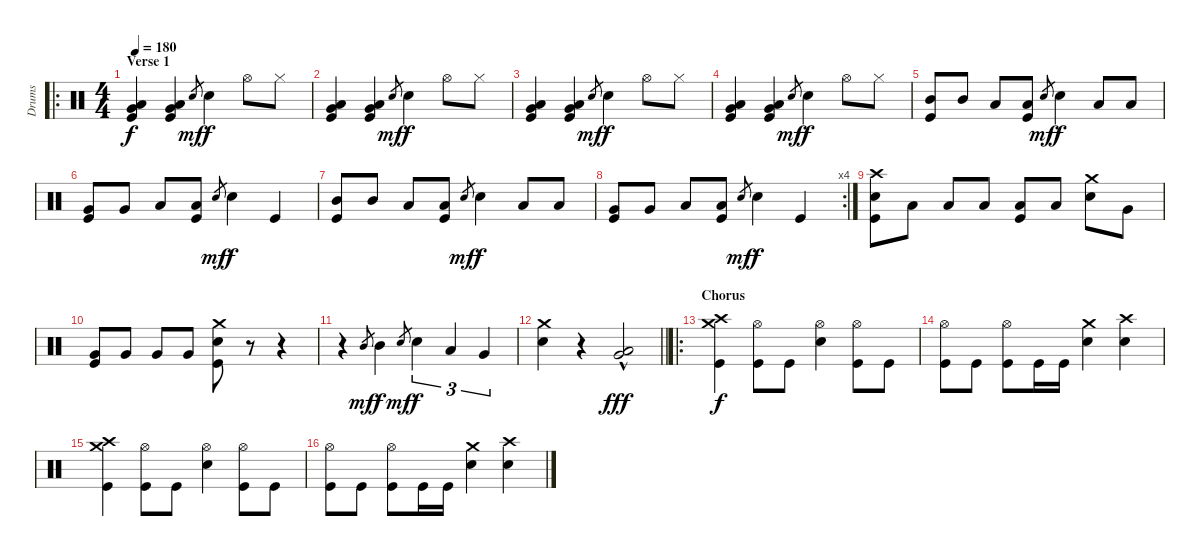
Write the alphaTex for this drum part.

\track ("Drums" "Drums") {instrument percussion}
\staff {score}
\articulation defaults
\ro
\ts (4 4)
\section ("" "Verse 1")
\tempo 180
\clef neutral
\ks c
("Very Low Tom (hit)" "Low Floor Tom (hit)" "Kick (hit)").4{dy f} ("Very Low Tom (hit)" "Low Floor Tom (hit)" "Kick (hit)").4 "Electric Snare (hit)"{h}.8{gr dy mf} "Electric Snare (hit)".4{dy f} "Hi-Hat (open)".8 "Hi-Hat (closed)".8 |
("Very Low Tom (hit)" "Low Floor Tom (hit)" "Kick (hit)").4 ("Very Low Tom (hit)" "Low Floor Tom (hit)" "Kick (hit)").4 "Electric Snare (hit)"{h}.8{gr dy mf} "Electric Snare (hit)".4{dy f} "Hi-Hat (open)".8 "Hi-Hat (closed)".8 |
("Very Low Tom (hit)" "Low Floor Tom (hit)" "Kick (hit)").4 ("Very Low Tom (hit)" "Low Floor Tom (hit)" "Kick (hit)").4 "Electric Snare (hit)"{h}.8{gr dy mf} "Electric Snare (hit)".4{dy f} "Hi-Hat (open)".8 "Hi-Hat (closed)".8 |
("Very Low Tom (hit)" "Low Floor Tom (hit)" "Kick (hit)").4 ("Very Low Tom (hit)" "Low Floor Tom (hit)" "Kick (hit)").4 "Electric Snare (hit)"{h}.8{gr dy mf} "Electric Snare (hit)".4{dy f} "Hi-Hat (open)".8 "Hi-Hat (closed)".8 |
("Mid Tom (hit)" "Kick (hit)").8 "Mid Tom (hit)".8 "Low Tom (hit)".8 ("Low Tom (hit)" "Kick (hit)").8 "Electric Snare (hit)"{h}.8{gr dy mf} "Electric Snare (hit)".4{dy f} "Low Tom (hit)".8 "Low Tom (hit)".8 |
("Very Low Tom (hit)" "Kick (hit)").8 "Very Low Tom (hit)".8 "Low Floor Tom (hit)".8 ("Low Floor Tom (hit)" "Kick (hit)").8 "Electric Snare (hit)"{h}.8{gr dy mf} "Electric Snare (hit)".4{dy f} "Kick (hit)".4 |
("Mid Tom (hit)" "Kick (hit)").8 "Mid Tom (hit)".8 "Low Tom (hit)".8 ("Low Tom (hit)" "Kick (hit)").8 "Electric Snare (hit)"{h}.8{gr dy mf} "Electric Snare (hit)".4{dy f} "Low Tom (hit)".8 "Low Tom (hit)".8 |
\rc 4
("Very Low Tom (hit)" "Kick (hit)").8 "Very Low Tom (hit)".8 "Low Floor Tom (hit)".8 ("Low Floor Tom (hit)" "Kick (hit)").8 "Electric Snare (hit)"{h}.8{gr dy mf} "Electric Snare (hit)".4{dy f} "Kick (hit)".4 |
("Crash high (hit)" "Electric Snare (hit)" "Kick (hit)").8 "Low Tom (hit)".8 "Low Tom (hit)".8 "Low Tom (hit)".8 ("Low Tom (hit)" "Kick (hit)").8 "Low Tom (hit)".8 ("Crash medium (hit)" "Electric Snare (hit)").8 "Very Low Tom (hit)".8 |
("Very Low Tom (hit)" "Kick (hit)").8 "Very Low Tom (hit)".8 "Very Low Tom (hit)".8 "Very Low Tom (hit)".8 ("Crash medium (hit)" "Electric Snare (hit)" "Kick (hit)").8 r.8 r.4 |
r.4 "Mid Tom (hit)"{h}.8{gr dy mf} "Mid Tom (hit)".4{dy f} "Electric Snare (hit)"{h}.8{gr dy mf} "Electric Snare (hit)".4{tu (3 2) dy f} "Low Tom (hit)".4{tu (3 2)} "Very Low Tom (hit)".4{tu (3 2)} |
\barLineRight lightlight
("Crash medium (hit)" "Electric Snare (hit)").4 r.4 ("Very Low Tom (hit)"{hac} "Low Floor Tom (hit)"{hac}).2{dy fff} |
\ro
\section ("" "Chorus")
("Crash medium (hit)" "Crash high (hit)" "Kick (hit)").4{dy f} ("Hi-Hat (open)" "Kick (hit)").8 "Kick (hit)".8 ("Hi-Hat (open)" "Electric Snare (hit)").4 ("Hi-Hat (open)" "Kick (hit)").8 "Kick (hit)".8 |
("Hi-Hat (open)" "Kick (hit)").8 "Kick (hit)".8 ("Hi-Hat (open)" "Kick (hit)").8 "Kick (hit)".16 "Kick (hit)".16 ("Crash medium (hit)" "Electric Snare (hit)").4 ("Crash high (hit)" "Electric Snare (hit)").4 |
("Crash medium (hit)" "Crash high (hit)" "Kick (hit)").4 ("Hi-Hat (open)" "Kick (hit)").8 "Kick (hit)".8 ("Hi-Hat (open)" "Electric Snare (hit)").4 ("Hi-Hat (open)" "Kick (hit)").8 "Kick (hit)".8 |
("Hi-Hat (open)" "Kick (hit)").8 "Kick (hit)".8 ("Hi-Hat (open)" "Kick (hit)").8 "Kick (hit)".16 "Kick (hit)".16 ("Crash medium (hit)" "Electric Snare (hit)").4 ("Crash high (hit)" "Electric Snare (hit)").4
